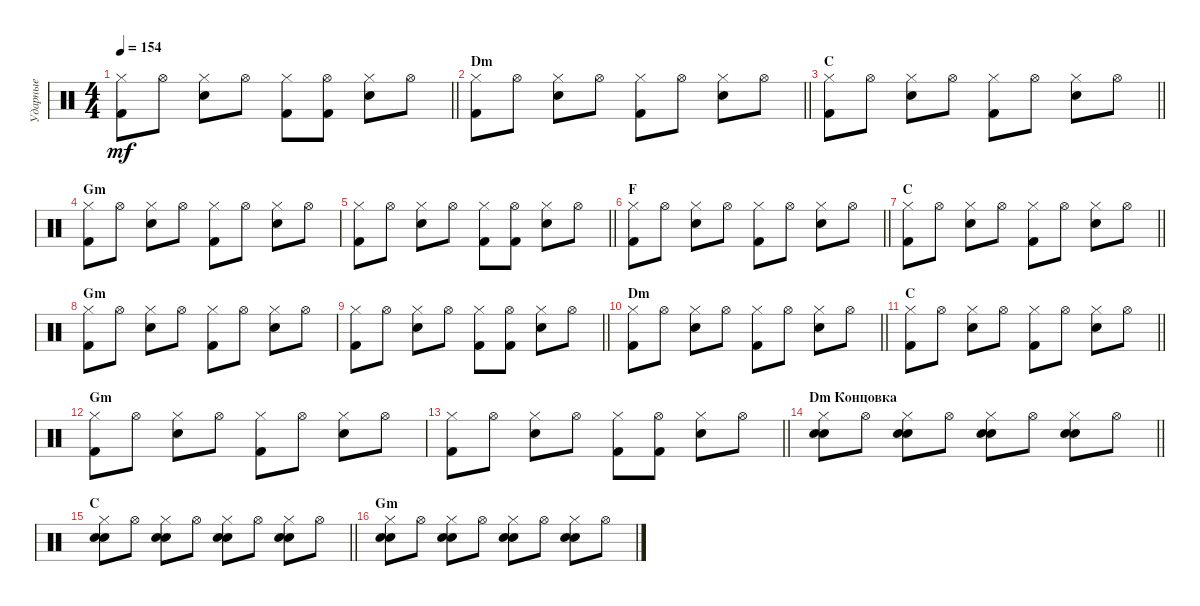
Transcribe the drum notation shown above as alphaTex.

\track ("Ударные" "Ударные") {instrument percussion}
\staff {score}
\articulation defaults
\ts (4 4)
\tempo 154
\clef neutral
\barLineRight lightlight
\ks c
("Hi-Hat (closed)" "Kick (hit) 2").8{dy mf} "Hi-Hat (open)".8 ("Hi-Hat (closed)" "Electric Snare (hit)").8 "Hi-Hat (open)".8 ("Hi-Hat (closed)" "Kick (hit) 2").8 ("Hi-Hat (open)" "Kick (hit) 2").8 ("Hi-Hat (closed)" "Electric Snare (hit)").8 "Hi-Hat (open)".8 |
\section ("" "Dm")
\barLineRight lightlight
("Hi-Hat (closed)" "Kick (hit) 2").8 "Hi-Hat (open)".8 ("Hi-Hat (closed)" "Electric Snare (hit)").8 "Hi-Hat (open)".8 ("Hi-Hat (closed)" "Kick (hit) 2").8 "Hi-Hat (open)".8 ("Hi-Hat (closed)" "Electric Snare (hit)").8 "Hi-Hat (open)".8 |
\section ("" "C")
\barLineRight lightlight
("Hi-Hat (closed)" "Kick (hit) 2").8 "Hi-Hat (open)".8 ("Hi-Hat (closed)" "Electric Snare (hit)").8 "Hi-Hat (open)".8 ("Hi-Hat (closed)" "Kick (hit) 2").8 "Hi-Hat (open)".8 ("Hi-Hat (closed)" "Electric Snare (hit)").8 "Hi-Hat (open)".8 |
\section ("" "Gm")
("Hi-Hat (closed)" "Kick (hit) 2").8 "Hi-Hat (open)".8 ("Hi-Hat (closed)" "Electric Snare (hit)").8 "Hi-Hat (open)".8 ("Hi-Hat (closed)" "Kick (hit) 2").8 "Hi-Hat (open)".8 ("Hi-Hat (closed)" "Electric Snare (hit)").8 "Hi-Hat (open)".8 |
\barLineRight lightlight
("Hi-Hat (closed)" "Kick (hit) 2").8 "Hi-Hat (open)".8 ("Hi-Hat (closed)" "Electric Snare (hit)").8 "Hi-Hat (open)".8 ("Hi-Hat (closed)" "Kick (hit) 2").8 ("Hi-Hat (open)" "Kick (hit) 2").8 ("Hi-Hat (closed)" "Electric Snare (hit)").8 "Hi-Hat (open)".8 |
\section ("" "F")
\barLineRight lightlight
("Hi-Hat (closed)" "Kick (hit) 2").8 "Hi-Hat (open)".8 ("Hi-Hat (closed)" "Electric Snare (hit)").8 "Hi-Hat (open)".8 ("Hi-Hat (closed)" "Kick (hit) 2").8 "Hi-Hat (open)".8 ("Hi-Hat (closed)" "Electric Snare (hit)").8 "Hi-Hat (open)".8 |
\section ("" "C")
\barLineRight lightlight
("Hi-Hat (closed)" "Kick (hit) 2").8 "Hi-Hat (open)".8 ("Hi-Hat (closed)" "Electric Snare (hit)").8 "Hi-Hat (open)".8 ("Hi-Hat (closed)" "Kick (hit) 2").8 "Hi-Hat (open)".8 ("Hi-Hat (closed)" "Electric Snare (hit)").8 "Hi-Hat (open)".8 |
\section ("" "Gm")
("Hi-Hat (closed)" "Kick (hit) 2").8 "Hi-Hat (open)".8 ("Hi-Hat (closed)" "Electric Snare (hit)").8 "Hi-Hat (open)".8 ("Hi-Hat (closed)" "Kick (hit) 2").8 "Hi-Hat (open)".8 ("Hi-Hat (closed)" "Electric Snare (hit)").8 "Hi-Hat (open)".8 |
\barLineRight lightlight
("Hi-Hat (closed)" "Kick (hit) 2").8 "Hi-Hat (open)".8 ("Hi-Hat (closed)" "Electric Snare (hit)").8 "Hi-Hat (open)".8 ("Hi-Hat (closed)" "Kick (hit) 2").8 ("Hi-Hat (open)" "Kick (hit) 2").8 ("Hi-Hat (closed)" "Electric Snare (hit)").8 "Hi-Hat (open)".8 |
\section ("" "Dm")
\barLineRight lightlight
("Hi-Hat (closed)" "Kick (hit) 2").8 "Hi-Hat (open)".8 ("Hi-Hat (closed)" "Electric Snare (hit)").8 "Hi-Hat (open)".8 ("Hi-Hat (closed)" "Kick (hit) 2").8 "Hi-Hat (open)".8 ("Hi-Hat (closed)" "Electric Snare (hit)").8 "Hi-Hat (open)".8 |
\section ("" "C")
\barLineRight lightlight
("Hi-Hat (closed)" "Kick (hit) 2").8 "Hi-Hat (open)".8 ("Hi-Hat (closed)" "Electric Snare (hit)").8 "Hi-Hat (open)".8 ("Hi-Hat (closed)" "Kick (hit) 2").8 "Hi-Hat (open)".8 ("Hi-Hat (closed)" "Electric Snare (hit)").8 "Hi-Hat (open)".8 |
\section ("" "Gm")
("Hi-Hat (closed)" "Kick (hit) 2").8 "Hi-Hat (open)".8 ("Hi-Hat (closed)" "Electric Snare (hit)").8 "Hi-Hat (open)".8 ("Hi-Hat (closed)" "Kick (hit) 2").8 "Hi-Hat (open)".8 ("Hi-Hat (closed)" "Electric Snare (hit)").8 "Hi-Hat (open)".8 |
\barLineRight lightlight
("Hi-Hat (closed)" "Kick (hit) 2").8 "Hi-Hat (open)".8 ("Hi-Hat (closed)" "Electric Snare (hit)").8 "Hi-Hat (open)".8 ("Hi-Hat (closed)" "Kick (hit) 2").8 ("Hi-Hat (open)" "Kick (hit) 2").8 ("Hi-Hat (closed)" "Electric Snare (hit)").8 "Hi-Hat (open)".8 |
\section ("" "Dm Концовка")
\barLineRight lightlight
("Hi-Hat (closed)" "Electric Snare (hit)" "Hand Clap (hit)").8 "Hi-Hat (open)".8 ("Hi-Hat (closed)" "Electric Snare (hit)" "Hand Clap (hit)").8 "Hi-Hat (open)".8 ("Hi-Hat (closed)" "Electric Snare (hit)" "Hand Clap (hit)").8 "Hi-Hat (open)".8 ("Hi-Hat (closed)" "Electric Snare (hit)" "Hand Clap (hit)").8 "Hi-Hat (open)".8 |
\section ("" "C")
\barLineRight lightlight
("Hi-Hat (closed)" "Electric Snare (hit)" "Hand Clap (hit)").8 "Hi-Hat (open)".8 ("Hi-Hat (closed)" "Electric Snare (hit)" "Hand Clap (hit)").8 "Hi-Hat (open)".8 ("Hi-Hat (closed)" "Electric Snare (hit)" "Hand Clap (hit)").8 "Hi-Hat (open)".8 ("Hi-Hat (closed)" "Electric Snare (hit)" "Hand Clap (hit)").8 "Hi-Hat (open)".8 |
\section ("" "Gm")
("Hi-Hat (closed)" "Electric Snare (hit)" "Hand Clap (hit)").8 "Hi-Hat (open)".8 ("Hi-Hat (closed)" "Electric Snare (hit)" "Hand Clap (hit)").8 "Hi-Hat (open)".8 ("Hi-Hat (closed)" "Electric Snare (hit)" "Hand Clap (hit)").8 "Hi-Hat (open)".8 ("Hi-Hat (closed)" "Electric Snare (hit)" "Hand Clap (hit)").8 "Hi-Hat (open)".8
